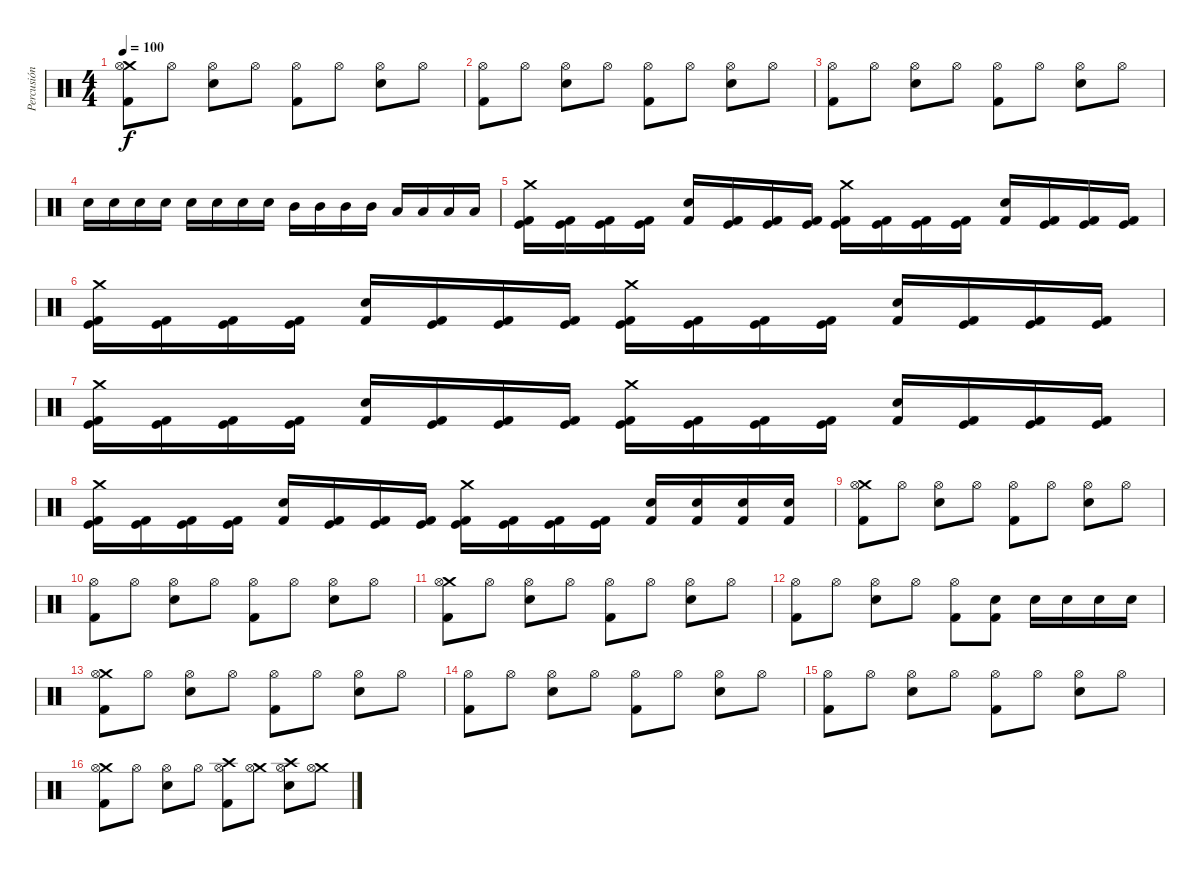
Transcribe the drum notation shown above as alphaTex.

\track ("Percusión" "Percusión") {instrument percussion}
\staff {score}
\articulation defaults
\ts (4 4)
\tempo 100
\clef neutral
\ks c
("Crash medium (hit)" "Hi-Hat (open)" "Kick (hit) 2").8{dy f} "Hi-Hat (open)".8 ("Hi-Hat (open)" "Snare (hit) 2").8 "Hi-Hat (open)".8 ("Hi-Hat (open)" "Kick (hit) 2").8 "Hi-Hat (open)".8 ("Hi-Hat (open)" "Snare (hit) 2").8 "Hi-Hat (open)".8 |
("Hi-Hat (open)" "Kick (hit) 2").8 "Hi-Hat (open)".8 ("Hi-Hat (open)" "Snare (hit) 2").8 "Hi-Hat (open)".8 ("Hi-Hat (open)" "Kick (hit) 2").8 "Hi-Hat (open)".8 ("Hi-Hat (open)" "Snare (hit) 2").8 "Hi-Hat (open)".8 |
("Hi-Hat (open)" "Kick (hit) 2").8 "Hi-Hat (open)".8 ("Hi-Hat (open)" "Snare (hit) 2").8 "Hi-Hat (open)".8 ("Hi-Hat (open)" "Kick (hit) 2").8 "Hi-Hat (open)".8 ("Hi-Hat (open)" "Snare (hit) 2").8 "Hi-Hat (open)".8 |
"Snare (hit) 2".16 "Snare (hit) 2".16 "Snare (hit) 2".16 "Snare (hit) 2".16 "Snare (hit) 2".16 "Snare (hit) 2".16 "Snare (hit) 2".16 "Snare (hit) 2".16 "Mid Tom (hit)".16 "Mid Tom (hit)".16 "Mid Tom (hit)".16 "Mid Tom (hit)".16 "Low Tom (hit)".16 "Low Tom (hit)".16 "Low Tom (hit)".16 "Low Tom (hit)".16 |
("Crash medium (hit)" "Kick (hit)" "Kick (hit) 2").16 ("Kick (hit)" "Kick (hit) 2").16 ("Kick (hit)" "Kick (hit) 2").16 ("Kick (hit)" "Kick (hit) 2").16 ("Snare (hit) 2" "Kick (hit) 2").16 ("Kick (hit)" "Kick (hit) 2").16 ("Kick (hit)" "Kick (hit) 2").16 ("Kick (hit)" "Kick (hit) 2").16 ("Crash medium (hit)" "Kick (hit)" "Kick (hit) 2").16 ("Kick (hit)" "Kick (hit) 2").16 ("Kick (hit)" "Kick (hit) 2").16 ("Kick (hit)" "Kick (hit) 2").16 ("Snare (hit) 2" "Kick (hit) 2").16 ("Kick (hit)" "Kick (hit) 2").16 ("Kick (hit)" "Kick (hit) 2").16 ("Kick (hit)" "Kick (hit) 2").16 |
("Crash medium (hit)" "Kick (hit)" "Kick (hit) 2").16 ("Kick (hit)" "Kick (hit) 2").16 ("Kick (hit)" "Kick (hit) 2").16 ("Kick (hit)" "Kick (hit) 2").16 ("Snare (hit) 2" "Kick (hit) 2").16 ("Kick (hit)" "Kick (hit) 2").16 ("Kick (hit)" "Kick (hit) 2").16 ("Kick (hit)" "Kick (hit) 2").16 ("Crash medium (hit)" "Kick (hit)" "Kick (hit) 2").16 ("Kick (hit)" "Kick (hit) 2").16 ("Kick (hit)" "Kick (hit) 2").16 ("Kick (hit)" "Kick (hit) 2").16 ("Snare (hit) 2" "Kick (hit) 2").16 ("Kick (hit)" "Kick (hit) 2").16 ("Kick (hit)" "Kick (hit) 2").16 ("Kick (hit)" "Kick (hit) 2").16 |
("Crash medium (hit)" "Kick (hit)" "Kick (hit) 2").16 ("Kick (hit)" "Kick (hit) 2").16 ("Kick (hit)" "Kick (hit) 2").16 ("Kick (hit)" "Kick (hit) 2").16 ("Snare (hit) 2" "Kick (hit) 2").16 ("Kick (hit)" "Kick (hit) 2").16 ("Kick (hit)" "Kick (hit) 2").16 ("Kick (hit)" "Kick (hit) 2").16 ("Crash medium (hit)" "Kick (hit)" "Kick (hit) 2").16 ("Kick (hit)" "Kick (hit) 2").16 ("Kick (hit)" "Kick (hit) 2").16 ("Kick (hit)" "Kick (hit) 2").16 ("Snare (hit) 2" "Kick (hit) 2").16 ("Kick (hit)" "Kick (hit) 2").16 ("Kick (hit)" "Kick (hit) 2").16 ("Kick (hit)" "Kick (hit) 2").16 |
("Crash medium (hit)" "Kick (hit)" "Kick (hit) 2").16 ("Kick (hit)" "Kick (hit) 2").16 ("Kick (hit)" "Kick (hit) 2").16 ("Kick (hit)" "Kick (hit) 2").16 ("Snare (hit) 2" "Kick (hit) 2").16 ("Kick (hit)" "Kick (hit) 2").16 ("Kick (hit)" "Kick (hit) 2").16 ("Kick (hit)" "Kick (hit) 2").16 ("Crash medium (hit)" "Kick (hit)" "Kick (hit) 2").16 ("Kick (hit)" "Kick (hit) 2").16 ("Kick (hit)" "Kick (hit) 2").16 ("Kick (hit)" "Kick (hit) 2").16 ("Snare (hit) 2" "Kick (hit) 2").16 ("Snare (hit) 2" "Kick (hit) 2").16 ("Snare (hit) 2" "Kick (hit) 2").16 ("Snare (hit) 2" "Kick (hit) 2").16 |
("Crash medium (hit)" "Hi-Hat (open)" "Kick (hit) 2").8 "Hi-Hat (open)".8 ("Hi-Hat (open)" "Snare (hit) 2").8 "Hi-Hat (open)".8 ("Hi-Hat (open)" "Kick (hit) 2").8 "Hi-Hat (open)".8 ("Hi-Hat (open)" "Snare (hit) 2").8 "Hi-Hat (open)".8 |
("Hi-Hat (open)" "Kick (hit) 2").8 "Hi-Hat (open)".8 ("Hi-Hat (open)" "Snare (hit) 2").8 "Hi-Hat (open)".8 ("Hi-Hat (open)" "Kick (hit) 2").8 "Hi-Hat (open)".8 ("Hi-Hat (open)" "Snare (hit) 2").8 "Hi-Hat (open)".8 |
("Crash medium (hit)" "Hi-Hat (open)" "Kick (hit) 2").8 "Hi-Hat (open)".8 ("Hi-Hat (open)" "Snare (hit) 2").8 "Hi-Hat (open)".8 ("Hi-Hat (open)" "Kick (hit) 2").8 "Hi-Hat (open)".8 ("Hi-Hat (open)" "Snare (hit) 2").8 "Hi-Hat (open)".8 |
("Hi-Hat (open)" "Kick (hit) 2").8 "Hi-Hat (open)".8 ("Hi-Hat (open)" "Snare (hit) 2").8 "Hi-Hat (open)".8 ("Hi-Hat (open)" "Kick (hit) 2").8 ("Snare (hit) 2" "Kick (hit) 2").8 "Snare (hit) 2".16 "Snare (hit) 2".16 "Snare (hit) 2".16 "Snare (hit) 2".16 |
("Crash medium (hit)" "Hi-Hat (open)" "Kick (hit) 2").8 "Hi-Hat (open)".8 ("Hi-Hat (open)" "Snare (hit) 2").8 "Hi-Hat (open)".8 ("Hi-Hat (open)" "Kick (hit) 2").8 "Hi-Hat (open)".8 ("Hi-Hat (open)" "Snare (hit) 2").8 "Hi-Hat (open)".8 |
("Hi-Hat (open)" "Kick (hit) 2").8 "Hi-Hat (open)".8 ("Hi-Hat (open)" "Snare (hit) 2").8 "Hi-Hat (open)".8 ("Hi-Hat (open)" "Kick (hit) 2").8 "Hi-Hat (open)".8 ("Hi-Hat (open)" "Snare (hit) 2").8 "Hi-Hat (open)".8 |
("Hi-Hat (open)" "Kick (hit) 2").8 "Hi-Hat (open)".8 ("Hi-Hat (open)" "Snare (hit) 2").8 "Hi-Hat (open)".8 ("Hi-Hat (open)" "Kick (hit) 2").8 "Hi-Hat (open)".8 ("Hi-Hat (open)" "Snare (hit) 2").8 "Hi-Hat (open)".8 |
("Crash medium (hit)" "Hi-Hat (open)" "Kick (hit) 2").8 "Hi-Hat (open)".8 ("Hi-Hat (open)" "Snare (hit) 2").8 "Hi-Hat (open)".8 ("Crash high (hit)" "Hi-Hat (open)" "Kick (hit) 2").8 ("Crash medium (hit)" "Hi-Hat (open)").8 ("Crash high (hit)" "Hi-Hat (open)" "Snare (hit) 2").8 ("Crash medium (hit)" "Hi-Hat (open)").8
